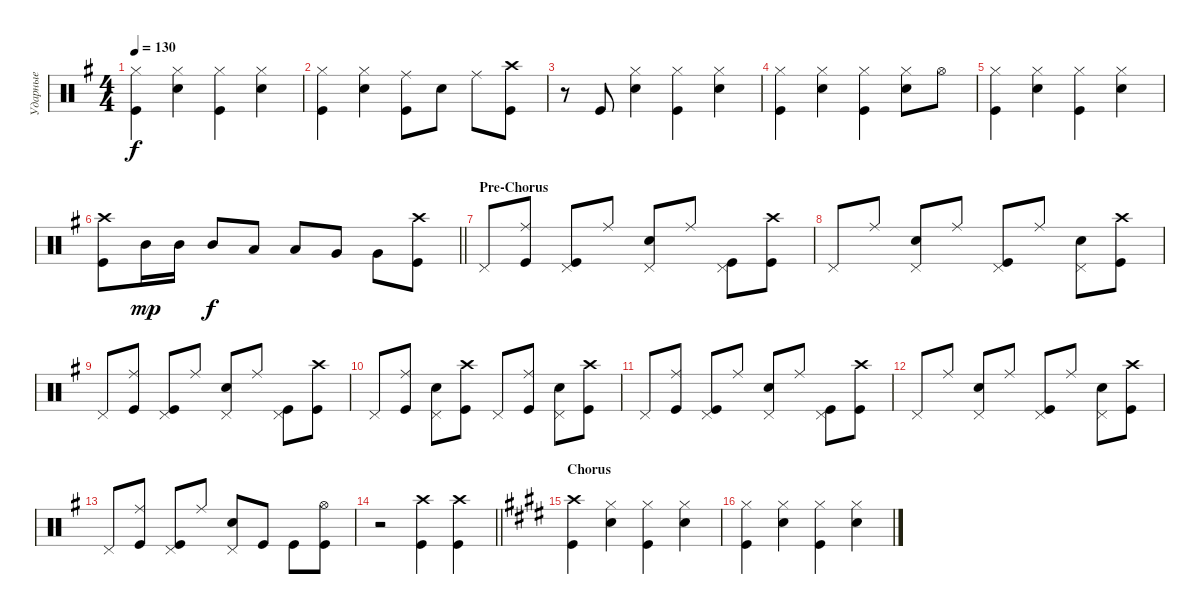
\track ("Ударные" "Ударные") {instrument percussion}
\staff {score}
\articulation defaults
\ts (4 4)
\tempo 130
\clef neutral
\ks eminor
("Kick (hit)" "Hi-Hat (closed)").4{dy f} ("Snare (hit) 2" "Hi-Hat (closed)").4 ("Kick (hit)" "Hi-Hat (closed)").4 ("Snare (hit) 2" "Hi-Hat (closed)").4 |
("Kick (hit)" "Hi-Hat (closed)").4 ("Snare (hit) 2" "Hi-Hat (closed)").4 ("Kick (hit)" "Ride (middle)").8 "Snare (hit) 2".8 "Ride (middle)".8 ("Kick (hit)" "Crash high (hit)").8 |
r.8 "Kick (hit)".8 ("Snare (hit) 2" "Hi-Hat (closed)").4 ("Kick (hit)" "Hi-Hat (closed)").4 ("Snare (hit) 2" "Hi-Hat (closed)").4 |
("Kick (hit)" "Hi-Hat (closed)").4 ("Snare (hit) 2" "Hi-Hat (closed)").4 ("Kick (hit)" "Hi-Hat (closed)").4 ("Snare (hit) 2" "Hi-Hat (closed)").8 "Hi-Hat (open)".8 |
("Kick (hit)" "Hi-Hat (closed)").4 ("Snare (hit) 2" "Hi-Hat (closed)").4 ("Kick (hit)" "Hi-Hat (closed)").4 ("Snare (hit) 2" "Hi-Hat (closed)").4 |
\barLineRight lightlight
("Kick (hit)" "Crash high (hit)").8 "Mid Tom (hit)".16{dy mp} "Mid Tom (hit)".16 "Mid Tom (hit)".8{dy f} "Low Tom (hit)".8 "Low Tom (hit)".8 "Very Low Tom (hit)".8 "Very Low Tom (hit)".8 ("Kick (hit)" "Crash high (hit)").8 |
\section ("" "Pre-Chorus")
"Pedal Hi-Hat (hit)".8 ("Kick (hit)" "Ride (middle)").8 ("Kick (hit)" "Pedal Hi-Hat (hit)").8 "Ride (middle)".8 ("Snare (hit) 2" "Pedal Hi-Hat (hit)").8 "Ride (middle)".8 ("Kick (hit)" "Pedal Hi-Hat (hit)").8 ("Kick (hit)" "Crash high (hit)").8 |
"Pedal Hi-Hat (hit)".8 "Ride (middle)".8 ("Snare (hit) 2" "Pedal Hi-Hat (hit)").8 "Ride (middle)".8 ("Kick (hit)" "Pedal Hi-Hat (hit)").8 "Ride (middle)".8 ("Snare (hit) 2" "Pedal Hi-Hat (hit)").8 ("Kick (hit)" "Crash high (hit)").8 |
"Pedal Hi-Hat (hit)".8 ("Kick (hit)" "Ride (middle)").8 ("Kick (hit)" "Pedal Hi-Hat (hit)").8 "Ride (middle)".8 ("Snare (hit) 2" "Pedal Hi-Hat (hit)").8 "Ride (middle)".8 ("Kick (hit)" "Pedal Hi-Hat (hit)").8 ("Kick (hit)" "Crash high (hit)").8 |
"Pedal Hi-Hat (hit)".8 ("Kick (hit)" "Ride (middle)").8 ("Snare (hit) 2" "Pedal Hi-Hat (hit)").8 ("Kick (hit)" "Crash high (hit)").8 "Pedal Hi-Hat (hit)".8 ("Kick (hit)" "Ride (middle)").8 ("Snare (hit) 2" "Pedal Hi-Hat (hit)").8 ("Kick (hit)" "Crash high (hit)").8 |
"Pedal Hi-Hat (hit)".8 ("Kick (hit)" "Ride (middle)").8 ("Kick (hit)" "Pedal Hi-Hat (hit)").8 "Ride (middle)".8 ("Snare (hit) 2" "Pedal Hi-Hat (hit)").8 "Ride (middle)".8 ("Kick (hit)" "Pedal Hi-Hat (hit)").8 ("Kick (hit)" "Crash high (hit)").8 |
"Pedal Hi-Hat (hit)".8 "Ride (middle)".8 ("Snare (hit) 2" "Pedal Hi-Hat (hit)").8 "Ride (middle)".8 ("Kick (hit)" "Pedal Hi-Hat (hit)").8 "Ride (middle)".8 ("Snare (hit) 2" "Pedal Hi-Hat (hit)").8 ("Kick (hit)" "Crash high (hit)").8 |
"Pedal Hi-Hat (hit)".8 ("Kick (hit)" "Ride (middle)").8 ("Kick (hit)" "Pedal Hi-Hat (hit)").8 "Ride (middle)".8 ("Snare (hit) 2" "Pedal Hi-Hat (hit)").8 "Kick (hit)".8 "Kick (hit)".8 ("Kick (hit)" "Hi-Hat (open)").8 |
\barLineRight lightlight
r.2 ("Kick (hit)" "Crash high (hit)").4 ("Kick (hit)" "Crash high (hit)").4 |
\section ("" "Chorus")
\ks c#minor
("Kick (hit)" "Crash high (hit)").4 ("Snare (hit) 2" "Hi-Hat (closed)").4 ("Kick (hit)" "Hi-Hat (closed)").4 ("Snare (hit) 2" "Hi-Hat (closed)").4 |
("Kick (hit)" "Hi-Hat (closed)").4 ("Snare (hit) 2" "Hi-Hat (closed)").4 ("Kick (hit)" "Hi-Hat (closed)").4 ("Snare (hit) 2" "Hi-Hat (closed)").4
